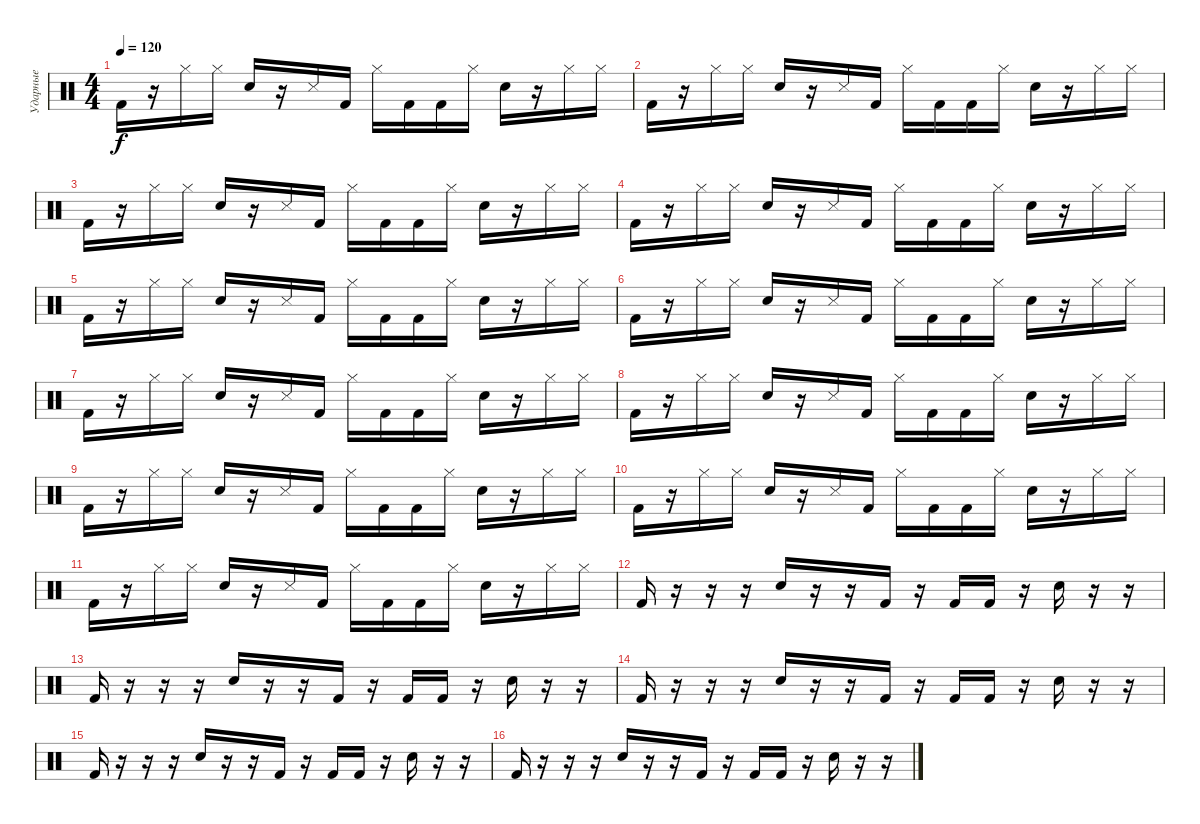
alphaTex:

\track ("Ударные" "Ударные") {instrument percussion}
\staff {score}
\articulation defaults
\ts (4 4)
\tempo 120
\clef neutral
\ks c "Kick (hit) 2".16{dy f}
r.16 "Hi-Hat (closed)".16 "Hi-Hat (closed)".16 "Electric Snare (hit)".16 r.16 "Snare (side stick) 3".16 "Kick (hit) 2".16 "Hi-Hat (closed)".16 "Kick (hit) 2".16 "Kick (hit) 2".16 "Hi-Hat (closed)".16 "Electric Snare (hit)".16 r.16 "Hi-Hat (closed)".16 "Hi-Hat (closed)".16 |
"Kick (hit) 2".16 r.16 "Hi-Hat (closed)".16 "Hi-Hat (closed)".16 "Electric Snare (hit)".16 r.16 "Snare (side stick) 3".16 "Kick (hit) 2".16 "Hi-Hat (closed)".16 "Kick (hit) 2".16 "Kick (hit) 2".16 "Hi-Hat (closed)".16 "Electric Snare (hit)".16 r.16 "Hi-Hat (closed)".16 "Hi-Hat (closed)".16 |
"Kick (hit) 2".16 r.16 "Hi-Hat (closed)".16 "Hi-Hat (closed)".16 "Electric Snare (hit)".16 r.16 "Snare (side stick) 3".16 "Kick (hit) 2".16 "Hi-Hat (closed)".16 "Kick (hit) 2".16 "Kick (hit) 2".16 "Hi-Hat (closed)".16 "Electric Snare (hit)".16 r.16 "Hi-Hat (closed)".16 "Hi-Hat (closed)".16 |
"Kick (hit) 2".16 r.16 "Hi-Hat (closed)".16 "Hi-Hat (closed)".16 "Electric Snare (hit)".16 r.16 "Snare (side stick) 3".16 "Kick (hit) 2".16 "Hi-Hat (closed)".16 "Kick (hit) 2".16 "Kick (hit) 2".16 "Hi-Hat (closed)".16 "Electric Snare (hit)".16 r.16 "Hi-Hat (closed)".16 "Hi-Hat (closed)".16 |
"Kick (hit) 2".16 r.16 "Hi-Hat (closed)".16 "Hi-Hat (closed)".16 "Electric Snare (hit)".16 r.16 "Snare (side stick) 3".16 "Kick (hit) 2".16 "Hi-Hat (closed)".16 "Kick (hit) 2".16 "Kick (hit) 2".16 "Hi-Hat (closed)".16 "Electric Snare (hit)".16 r.16 "Hi-Hat (closed)".16 "Hi-Hat (closed)".16 |
"Kick (hit) 2".16 r.16 "Hi-Hat (closed)".16 "Hi-Hat (closed)".16 "Electric Snare (hit)".16 r.16 "Snare (side stick) 3".16 "Kick (hit) 2".16 "Hi-Hat (closed)".16 "Kick (hit) 2".16 "Kick (hit) 2".16 "Hi-Hat (closed)".16 "Electric Snare (hit)".16 r.16 "Hi-Hat (closed)".16 "Hi-Hat (closed)".16 |
"Kick (hit) 2".16 r.16 "Hi-Hat (closed)".16 "Hi-Hat (closed)".16 "Electric Snare (hit)".16 r.16 "Snare (side stick) 3".16 "Kick (hit) 2".16 "Hi-Hat (closed)".16 "Kick (hit) 2".16 "Kick (hit) 2".16 "Hi-Hat (closed)".16 "Electric Snare (hit)".16 r.16 "Hi-Hat (closed)".16 "Hi-Hat (closed)".16 |
"Kick (hit) 2".16 r.16 "Hi-Hat (closed)".16 "Hi-Hat (closed)".16 "Electric Snare (hit)".16 r.16 "Snare (side stick) 3".16 "Kick (hit) 2".16 "Hi-Hat (closed)".16 "Kick (hit) 2".16 "Kick (hit) 2".16 "Hi-Hat (closed)".16 "Electric Snare (hit)".16 r.16 "Hi-Hat (closed)".16 "Hi-Hat (closed)".16 |
"Kick (hit) 2".16 r.16 "Hi-Hat (closed)".16 "Hi-Hat (closed)".16 "Electric Snare (hit)".16 r.16 "Snare (side stick) 3".16 "Kick (hit) 2".16 "Hi-Hat (closed)".16 "Kick (hit) 2".16 "Kick (hit) 2".16 "Hi-Hat (closed)".16 "Electric Snare (hit)".16 r.16 "Hi-Hat (closed)".16 "Hi-Hat (closed)".16 |
"Kick (hit) 2".16 r.16 "Hi-Hat (closed)".16 "Hi-Hat (closed)".16 "Electric Snare (hit)".16 r.16 "Snare (side stick) 3".16 "Kick (hit) 2".16 "Hi-Hat (closed)".16 "Kick (hit) 2".16 "Kick (hit) 2".16 "Hi-Hat (closed)".16 "Electric Snare (hit)".16 r.16 "Hi-Hat (closed)".16 "Hi-Hat (closed)".16 |
"Kick (hit) 2".16 r.16 "Hi-Hat (closed)".16 "Hi-Hat (closed)".16 "Electric Snare (hit)".16 r.16 "Snare (side stick) 3".16 "Kick (hit) 2".16 "Hi-Hat (closed)".16 "Kick (hit) 2".16 "Kick (hit) 2".16 "Hi-Hat (closed)".16 "Electric Snare (hit)".16 r.16 "Hi-Hat (closed)".16 "Hi-Hat (closed)".16 |
"Kick (hit) 2".16 r.16 r.16 r.16 "Electric Snare (hit)".16 r.16 r.16 "Kick (hit) 2".16 r.16 "Kick (hit) 2".16 "Kick (hit) 2".16 r.16 "Electric Snare (hit)".16 r.16 r.16 |
"Kick (hit) 2".16 r.16 r.16 r.16 "Electric Snare (hit)".16 r.16 r.16 "Kick (hit) 2".16 r.16 "Kick (hit) 2".16 "Kick (hit) 2".16 r.16 "Electric Snare (hit)".16 r.16 r.16 |
"Kick (hit) 2".16 r.16 r.16 r.16 "Electric Snare (hit)".16 r.16 r.16 "Kick (hit) 2".16 r.16 "Kick (hit) 2".16 "Kick (hit) 2".16 r.16 "Electric Snare (hit)".16 r.16 r.16 |
"Kick (hit) 2".16 r.16 r.16 r.16 "Electric Snare (hit)".16 r.16 r.16 "Kick (hit) 2".16 r.16 "Kick (hit) 2".16 "Kick (hit) 2".16 r.16 "Electric Snare (hit)".16 r.16 r.16 |
"Kick (hit) 2".16 r.16 r.16 r.16 "Electric Snare (hit)".16 r.16 r.16 "Kick (hit) 2".16 r.16 "Kick (hit) 2".16 "Kick (hit) 2".16 r.16 "Electric Snare (hit)".16 r.16 r.16
